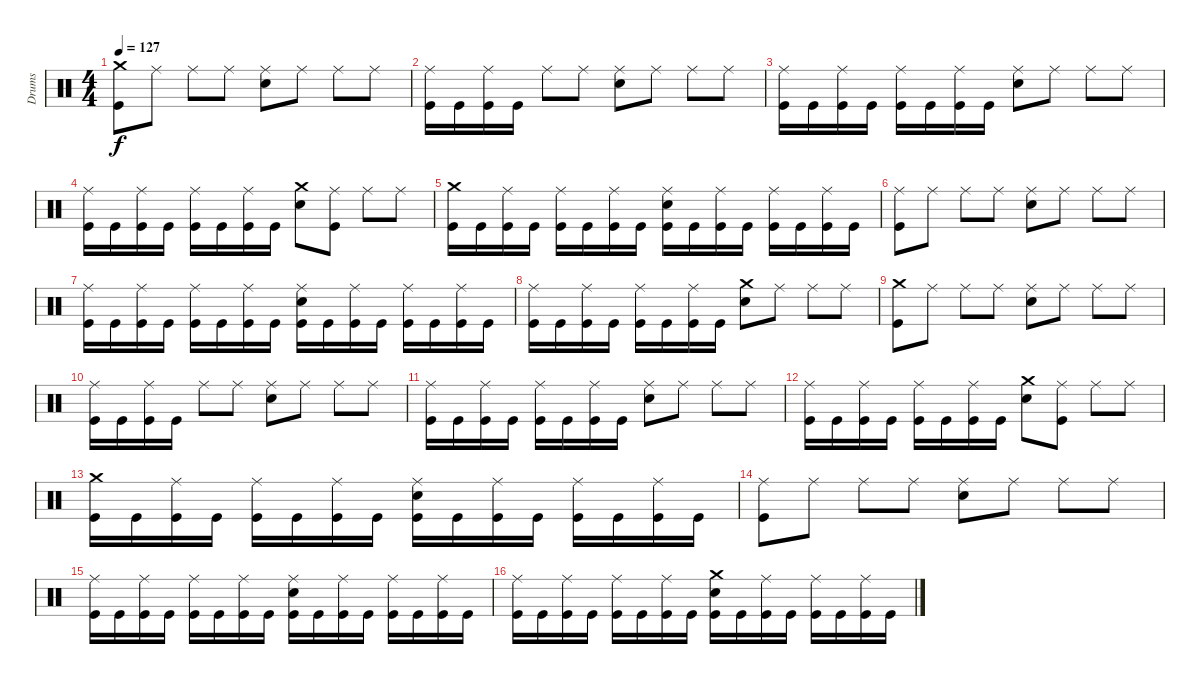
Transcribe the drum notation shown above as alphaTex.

\track ("Drums" "Drums") {instrument percussion}
\staff {score}
\articulation defaults
\ts (4 4)
\tempo 127
\clef neutral
\ks c
("Crash medium (hit)" "Kick (hit)").8{dy f} "Ride (middle)".8 "Ride (middle)".8 "Ride (middle)".8 ("Ride (middle)" "Snare (hit) 2").8 "Ride (middle)".8 "Ride (middle)".8 "Ride (middle)".8 |
("Ride (middle)" "Kick (hit)").16 "Kick (hit)".16 ("Ride (middle)" "Kick (hit)").16 "Kick (hit)".16 "Ride (middle)".8 "Ride (middle)".8 ("Ride (middle)" "Snare (hit) 2").8 "Ride (middle)".8 "Ride (middle)".8 "Ride (middle)".8 |
("Ride (middle)" "Kick (hit)").16 "Kick (hit)".16 ("Ride (middle)" "Kick (hit)").16 "Kick (hit)".16 ("Ride (middle)" "Kick (hit)").16 "Kick (hit)".16 ("Ride (middle)" "Kick (hit)").16 "Kick (hit)".16 ("Ride (middle)" "Snare (hit) 2").8 "Ride (middle)".8 "Ride (middle)".8 "Ride (middle)".8 |
("Ride (middle)" "Kick (hit)").16 "Kick (hit)".16 ("Ride (middle)" "Kick (hit)").16 "Kick (hit)".16 ("Ride (middle)" "Kick (hit)").16 "Kick (hit)".16 ("Ride (middle)" "Kick (hit)").16 "Kick (hit)".16 ("Crash medium (hit)" "Snare (hit) 2").8 ("Ride (middle)" "Kick (hit)").8 "Ride (middle)".8 "Ride (middle)".8 |
("Crash medium (hit)" "Kick (hit)").16 "Kick (hit)".16 ("Ride (middle)" "Kick (hit)").16 "Kick (hit)".16 ("Ride (middle)" "Kick (hit)").16 "Kick (hit)".16 ("Ride (middle)" "Kick (hit)").16 "Kick (hit)".16 ("Ride (middle)" "Snare (hit) 2" "Kick (hit)").16 "Kick (hit)".16 ("Ride (middle)" "Kick (hit)").16 "Kick (hit)".16 ("Ride (middle)" "Kick (hit)").16 "Kick (hit)".16 ("Ride (middle)" "Kick (hit)").16 "Kick (hit)".16 |
("Ride (middle)" "Kick (hit)").8 "Ride (middle)".8 "Ride (middle)".8 "Ride (middle)".8 ("Ride (middle)" "Snare (hit) 2").8 "Ride (middle)".8 "Ride (middle)".8 "Ride (middle)".8 |
("Ride (middle)" "Kick (hit)").16 "Kick (hit)".16 ("Ride (middle)" "Kick (hit)").16 "Kick (hit)".16 ("Ride (middle)" "Kick (hit)").16 "Kick (hit)".16 ("Ride (middle)" "Kick (hit)").16 "Kick (hit)".16 ("Ride (middle)" "Snare (hit) 2" "Kick (hit)").16 "Kick (hit)".16 ("Ride (middle)" "Kick (hit)").16 "Kick (hit)".16 ("Ride (middle)" "Kick (hit)").16 "Kick (hit)".16 ("Ride (middle)" "Kick (hit)").16 "Kick (hit)".16 |
("Ride (middle)" "Kick (hit)").16 "Kick (hit)".16 ("Ride (middle)" "Kick (hit)").16 "Kick (hit)".16 ("Ride (middle)" "Kick (hit)").16 "Kick (hit)".16 ("Ride (middle)" "Kick (hit)").16 "Kick (hit)".16 ("Crash medium (hit)" "Snare (hit) 2").8 "Ride (middle)".8 "Ride (middle)".8 "Ride (middle)".8 |
("Crash medium (hit)" "Kick (hit)").8 "Ride (middle)".8 "Ride (middle)".8 "Ride (middle)".8 ("Ride (middle)" "Snare (hit) 2").8 "Ride (middle)".8 "Ride (middle)".8 "Ride (middle)".8 |
("Ride (middle)" "Kick (hit)").16 "Kick (hit)".16 ("Ride (middle)" "Kick (hit)").16 "Kick (hit)".16 "Ride (middle)".8 "Ride (middle)".8 ("Ride (middle)" "Snare (hit) 2").8 "Ride (middle)".8 "Ride (middle)".8 "Ride (middle)".8 |
("Ride (middle)" "Kick (hit)").16 "Kick (hit)".16 ("Ride (middle)" "Kick (hit)").16 "Kick (hit)".16 ("Ride (middle)" "Kick (hit)").16 "Kick (hit)".16 ("Ride (middle)" "Kick (hit)").16 "Kick (hit)".16 ("Ride (middle)" "Snare (hit) 2").8 "Ride (middle)".8 "Ride (middle)".8 "Ride (middle)".8 |
("Ride (middle)" "Kick (hit)").16 "Kick (hit)".16 ("Ride (middle)" "Kick (hit)").16 "Kick (hit)".16 ("Ride (middle)" "Kick (hit)").16 "Kick (hit)".16 ("Ride (middle)" "Kick (hit)").16 "Kick (hit)".16 ("Crash medium (hit)" "Snare (hit) 2").8 ("Ride (middle)" "Kick (hit)").8 "Ride (middle)".8 "Ride (middle)".8 |
("Crash medium (hit)" "Kick (hit)").16 "Kick (hit)".16 ("Ride (middle)" "Kick (hit)").16 "Kick (hit)".16 ("Ride (middle)" "Kick (hit)").16 "Kick (hit)".16 ("Ride (middle)" "Kick (hit)").16 "Kick (hit)".16 ("Ride (middle)" "Snare (hit) 2" "Kick (hit)").16 "Kick (hit)".16 ("Ride (middle)" "Kick (hit)").16 "Kick (hit)".16 ("Ride (middle)" "Kick (hit)").16 "Kick (hit)".16 ("Ride (middle)" "Kick (hit)").16 "Kick (hit)".16 |
("Ride (middle)" "Kick (hit)").8 "Ride (middle)".8 "Ride (middle)".8 "Ride (middle)".8 ("Ride (middle)" "Snare (hit) 2").8 "Ride (middle)".8 "Ride (middle)".8 "Ride (middle)".8 |
("Ride (middle)" "Kick (hit)").16 "Kick (hit)".16 ("Ride (middle)" "Kick (hit)").16 "Kick (hit)".16 ("Ride (middle)" "Kick (hit)").16 "Kick (hit)".16 ("Ride (middle)" "Kick (hit)").16 "Kick (hit)".16 ("Ride (middle)" "Snare (hit) 2" "Kick (hit)").16 "Kick (hit)".16 ("Ride (middle)" "Kick (hit)").16 "Kick (hit)".16 ("Ride (middle)" "Kick (hit)").16 "Kick (hit)".16 ("Ride (middle)" "Kick (hit)").16 "Kick (hit)".16 |
("Ride (middle)" "Kick (hit)").16 "Kick (hit)".16 ("Ride (middle)" "Kick (hit)").16 "Kick (hit)".16 ("Ride (middle)" "Kick (hit)").16 "Kick (hit)".16 ("Ride (middle)" "Kick (hit)").16 "Kick (hit)".16 ("Crash medium (hit)" "Snare (hit) 2" "Kick (hit)").16 "Kick (hit)".16 ("Ride (middle)" "Kick (hit)").16 "Kick (hit)".16 ("Ride (middle)" "Kick (hit)").16 "Kick (hit)".16 ("Ride (middle)" "Kick (hit)").16 "Kick (hit)".16
